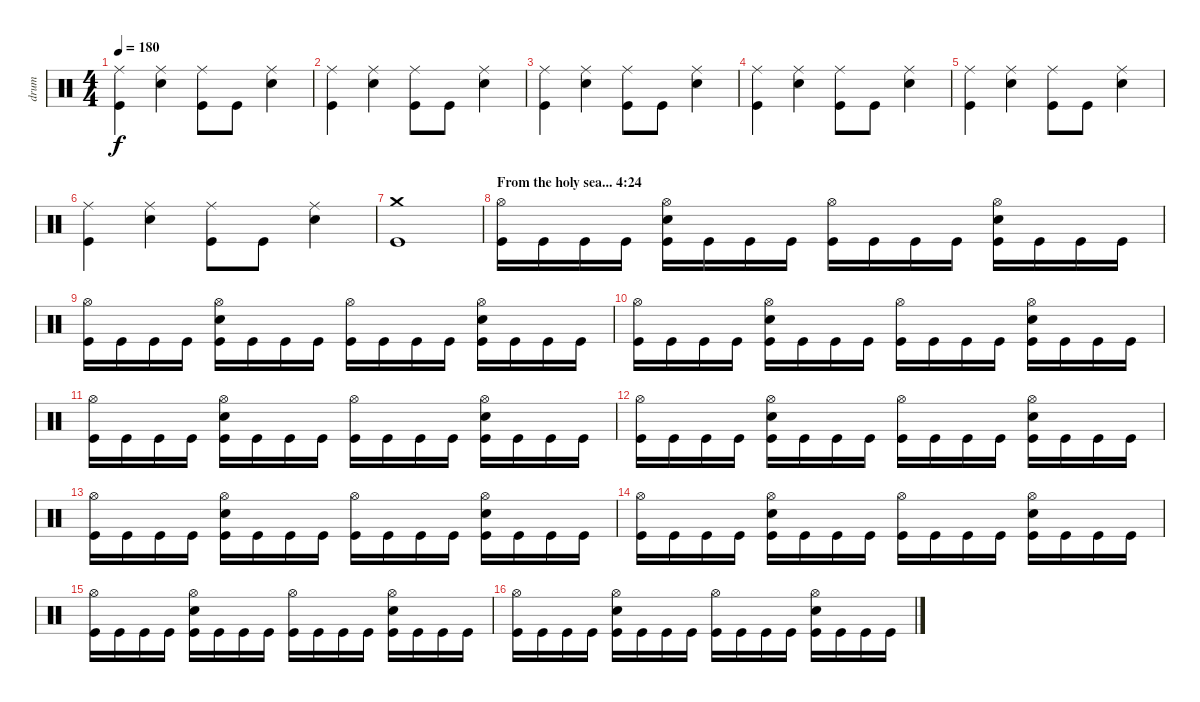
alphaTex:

\track ("drum" "drum") {instrument percussion}
\staff {score}
\articulation defaults
\ts (4 4)
\tempo 180
\clef neutral
\ks c
("Ride (middle)" "Kick (hit)").4{dy f} ("Ride (middle)" "Snare (hit) 2").4 ("Ride (middle)" "Kick (hit)").8 "Kick (hit)".8 ("Ride (middle)" "Snare (hit) 2").4 |
("Ride (middle)" "Kick (hit)").4 ("Ride (middle)" "Snare (hit) 2").4 ("Ride (middle)" "Kick (hit)").8 "Kick (hit)".8 ("Ride (middle)" "Snare (hit) 2").4 |
("Ride (middle)" "Kick (hit)").4 ("Ride (middle)" "Snare (hit) 2").4 ("Ride (middle)" "Kick (hit)").8 "Kick (hit)".8 ("Ride (middle)" "Snare (hit) 2").4 |
("Ride (middle)" "Kick (hit)").4 ("Ride (middle)" "Snare (hit) 2").4 ("Ride (middle)" "Kick (hit)").8 "Kick (hit)".8 ("Ride (middle)" "Snare (hit) 2").4 |
("Ride (middle)" "Kick (hit)").4 ("Ride (middle)" "Snare (hit) 2").4 ("Ride (middle)" "Kick (hit)").8 "Kick (hit)".8 ("Ride (middle)" "Snare (hit) 2").4 |
("Ride (middle)" "Kick (hit)").4 ("Ride (middle)" "Snare (hit) 2").4 ("Ride (middle)" "Kick (hit)").8 "Kick (hit)".8 ("Ride (middle)" "Snare (hit) 2").4 |
("Crash medium (hit)" "Kick (hit)").1 |
\section ("" "From the holy sea... 4:24")
("Hi-Hat (open)" "Kick (hit)").16 "Kick (hit)".16 "Kick (hit)".16 "Kick (hit)".16 ("Hi-Hat (open)" "Snare (hit) 2" "Kick (hit)").16 "Kick (hit)".16 "Kick (hit)".16 "Kick (hit)".16 ("Hi-Hat (open)" "Kick (hit)").16 "Kick (hit)".16 "Kick (hit)".16 "Kick (hit)".16 ("Hi-Hat (open)" "Snare (hit) 2" "Kick (hit)").16 "Kick (hit)".16 "Kick (hit)".16 "Kick (hit)".16 |
("Hi-Hat (open)" "Kick (hit)").16 "Kick (hit)".16 "Kick (hit)".16 "Kick (hit)".16 ("Hi-Hat (open)" "Snare (hit) 2" "Kick (hit)").16 "Kick (hit)".16 "Kick (hit)".16 "Kick (hit)".16 ("Hi-Hat (open)" "Kick (hit)").16 "Kick (hit)".16 "Kick (hit)".16 "Kick (hit)".16 ("Hi-Hat (open)" "Snare (hit) 2" "Kick (hit)").16 "Kick (hit)".16 "Kick (hit)".16 "Kick (hit)".16 |
("Hi-Hat (open)" "Kick (hit)").16 "Kick (hit)".16 "Kick (hit)".16 "Kick (hit)".16 ("Hi-Hat (open)" "Snare (hit) 2" "Kick (hit)").16 "Kick (hit)".16 "Kick (hit)".16 "Kick (hit)".16 ("Hi-Hat (open)" "Kick (hit)").16 "Kick (hit)".16 "Kick (hit)".16 "Kick (hit)".16 ("Hi-Hat (open)" "Snare (hit) 2" "Kick (hit)").16 "Kick (hit)".16 "Kick (hit)".16 "Kick (hit)".16 |
("Hi-Hat (open)" "Kick (hit)").16 "Kick (hit)".16 "Kick (hit)".16 "Kick (hit)".16 ("Hi-Hat (open)" "Snare (hit) 2" "Kick (hit)").16 "Kick (hit)".16 "Kick (hit)".16 "Kick (hit)".16 ("Hi-Hat (open)" "Kick (hit)").16 "Kick (hit)".16 "Kick (hit)".16 "Kick (hit)".16 ("Hi-Hat (open)" "Snare (hit) 2" "Kick (hit)").16 "Kick (hit)".16 "Kick (hit)".16 "Kick (hit)".16 |
("Hi-Hat (open)" "Kick (hit)").16 "Kick (hit)".16 "Kick (hit)".16 "Kick (hit)".16 ("Hi-Hat (open)" "Snare (hit) 2" "Kick (hit)").16 "Kick (hit)".16 "Kick (hit)".16 "Kick (hit)".16 ("Hi-Hat (open)" "Kick (hit)").16 "Kick (hit)".16 "Kick (hit)".16 "Kick (hit)".16 ("Hi-Hat (open)" "Snare (hit) 2" "Kick (hit)").16 "Kick (hit)".16 "Kick (hit)".16 "Kick (hit)".16 |
("Hi-Hat (open)" "Kick (hit)").16 "Kick (hit)".16 "Kick (hit)".16 "Kick (hit)".16 ("Hi-Hat (open)" "Snare (hit) 2" "Kick (hit)").16 "Kick (hit)".16 "Kick (hit)".16 "Kick (hit)".16 ("Hi-Hat (open)" "Kick (hit)").16 "Kick (hit)".16 "Kick (hit)".16 "Kick (hit)".16 ("Hi-Hat (open)" "Snare (hit) 2" "Kick (hit)").16 "Kick (hit)".16 "Kick (hit)".16 "Kick (hit)".16 |
("Hi-Hat (open)" "Kick (hit)").16 "Kick (hit)".16 "Kick (hit)".16 "Kick (hit)".16 ("Hi-Hat (open)" "Snare (hit) 2" "Kick (hit)").16 "Kick (hit)".16 "Kick (hit)".16 "Kick (hit)".16 ("Hi-Hat (open)" "Kick (hit)").16 "Kick (hit)".16 "Kick (hit)".16 "Kick (hit)".16 ("Hi-Hat (open)" "Snare (hit) 2" "Kick (hit)").16 "Kick (hit)".16 "Kick (hit)".16 "Kick (hit)".16 |
("Hi-Hat (open)" "Kick (hit)").16 "Kick (hit)".16 "Kick (hit)".16 "Kick (hit)".16 ("Hi-Hat (open)" "Snare (hit) 2" "Kick (hit)").16 "Kick (hit)".16 "Kick (hit)".16 "Kick (hit)".16 ("Hi-Hat (open)" "Kick (hit)").16 "Kick (hit)".16 "Kick (hit)".16 "Kick (hit)".16 ("Hi-Hat (open)" "Snare (hit) 2" "Kick (hit)").16 "Kick (hit)".16 "Kick (hit)".16 "Kick (hit)".16 |
("Hi-Hat (open)" "Kick (hit)").16 "Kick (hit)".16 "Kick (hit)".16 "Kick (hit)".16 ("Hi-Hat (open)" "Snare (hit) 2" "Kick (hit)").16 "Kick (hit)".16 "Kick (hit)".16 "Kick (hit)".16 ("Hi-Hat (open)" "Kick (hit)").16 "Kick (hit)".16 "Kick (hit)".16 "Kick (hit)".16 ("Hi-Hat (open)" "Snare (hit) 2" "Kick (hit)").16 "Kick (hit)".16 "Kick (hit)".16 "Kick (hit)".16
